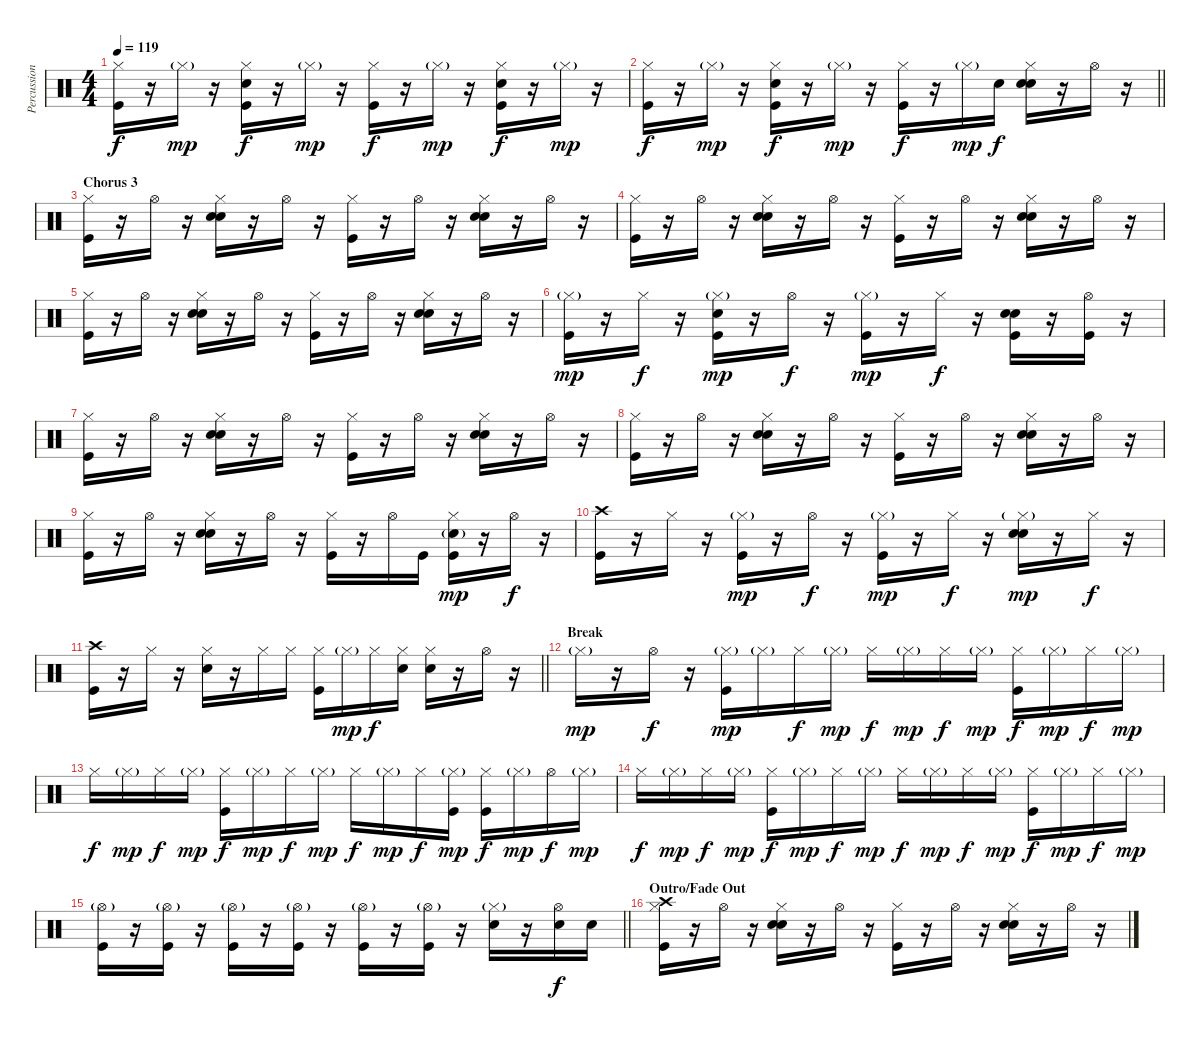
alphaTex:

\track ("Percussion" "Percussion") {instrument percussion}
\staff {score}
\articulation defaults
\ts (4 4)
\tempo 119
\clef neutral
\ks c
("Hi-Hat (closed)" "Kick (hit)").16{dy f} r.16 "Hi-Hat (closed)"{g}.16{dy mp} r.16 ("Hi-Hat (closed)" "Snare (hit) 2" "Kick (hit)").16{dy f} r.16 "Hi-Hat (closed)"{g}.16{dy mp} r.16 ("Hi-Hat (closed)" "Kick (hit)").16{dy f} r.16 "Hi-Hat (closed)"{g}.16{dy mp} r.16 ("Hi-Hat (closed)" "Snare (hit) 2" "Kick (hit)").16{dy f} r.16 "Hi-Hat (closed)"{g}.16{dy mp} r.16 |
\barLineRight lightlight
("Hi-Hat (closed)" "Kick (hit)").16{dy f} r.16 "Hi-Hat (closed)"{g}.16{dy mp} r.16 ("Hi-Hat (closed)" "Snare (hit) 2" "Kick (hit)").16{dy f} r.16 "Hi-Hat (closed)"{g}.16{dy mp} r.16 ("Hi-Hat (closed)" "Kick (hit)").16{dy f} r.16 "Hi-Hat (closed)"{g}.16{dy mp} "Snare (hit) 2".16{dy f} ("Hi-Hat (closed)" "Hand Clap (hit)" "Snare (hit) 2").16 r.16 "Hi-Hat (open)".16 r.16 |
\section ("" "Chorus 3")
("Hi-Hat (closed)" "Kick (hit)").16 r.16 "Hi-Hat (open)".16 r.16 ("Hi-Hat (closed)" "Hand Clap (hit)" "Snare (hit) 2").16 r.16 "Hi-Hat (open)".16 r.16 ("Hi-Hat (closed)" "Kick (hit)").16 r.16 "Hi-Hat (open)".16 r.16 ("Hi-Hat (closed)" "Hand Clap (hit)" "Snare (hit) 2").16 r.16 "Hi-Hat (open)".16 r.16 |
("Hi-Hat (closed)" "Kick (hit)").16 r.16 "Hi-Hat (open)".16 r.16 ("Hi-Hat (closed)" "Hand Clap (hit)" "Snare (hit) 2").16 r.16 "Hi-Hat (open)".16 r.16 ("Hi-Hat (closed)" "Kick (hit)").16 r.16 "Hi-Hat (open)".16 r.16 ("Hi-Hat (closed)" "Hand Clap (hit)" "Snare (hit) 2").16 r.16 "Hi-Hat (open)".16 r.16 |
("Hi-Hat (closed)" "Kick (hit)").16 r.16 "Hi-Hat (open)".16 r.16 ("Hi-Hat (closed)" "Hand Clap (hit)" "Snare (hit) 2").16 r.16 "Hi-Hat (open)".16 r.16 ("Hi-Hat (closed)" "Kick (hit)").16 r.16 "Hi-Hat (open)".16 r.16 ("Hi-Hat (closed)" "Hand Clap (hit)" "Snare (hit) 2").16 r.16 "Hi-Hat (open)".16 r.16 |
("Hi-Hat (closed)"{g} "Kick (hit)").16{dy mp} r.16 "Hi-Hat (closed)".16{dy f} r.16 ("Hi-Hat (closed)"{g} "Hand Clap (hit)" "Kick (hit)").16{dy mp} r.16 "Hi-Hat (open)".16{dy f} r.16 ("Hi-Hat (closed)"{g} "Kick (hit)").16{dy mp} r.16 "Hi-Hat (closed)".16{dy f} r.16 ("Hand Clap (hit)" "Snare (hit) 2" "Kick (hit)").16 r.16 ("Hi-Hat (open)" "Kick (hit)").16 r.16 |
("Hi-Hat (closed)" "Kick (hit)").16 r.16 "Hi-Hat (open)".16 r.16 ("Hi-Hat (closed)" "Hand Clap (hit)" "Snare (hit) 2").16 r.16 "Hi-Hat (open)".16 r.16 ("Hi-Hat (closed)" "Kick (hit)").16 r.16 "Hi-Hat (open)".16 r.16 ("Hi-Hat (closed)" "Hand Clap (hit)" "Snare (hit) 2").16 r.16 "Hi-Hat (open)".16 r.16 |
("Hi-Hat (closed)" "Kick (hit)").16 r.16 "Hi-Hat (open)".16 r.16 ("Hi-Hat (closed)" "Hand Clap (hit)" "Snare (hit) 2").16 r.16 "Hi-Hat (open)".16 r.16 ("Hi-Hat (closed)" "Kick (hit)").16 r.16 "Hi-Hat (open)".16 r.16 ("Hi-Hat (closed)" "Hand Clap (hit)" "Snare (hit) 2").16 r.16 "Hi-Hat (open)".16 r.16 |
("Hi-Hat (closed)" "Kick (hit)").16 r.16 "Hi-Hat (open)".16 r.16 ("Hi-Hat (closed)" "Hand Clap (hit)" "Snare (hit) 2").16 r.16 "Hi-Hat (open)".16 r.16 ("Hi-Hat (closed)" "Kick (hit)").16 r.16 "Hi-Hat (open)".16 "Kick (hit)".16 ("Hi-Hat (closed)" "Hand Clap (hit)"{g} "Kick (hit)").16{dy mp} r.16 "Hi-Hat (open)".16{dy f} r.16 |
("Crash high (hit)" "Kick (hit)").16 r.16 "Hi-Hat (closed)".16 r.16 ("Hi-Hat (closed)"{g} "Kick (hit)").16{dy mp} r.16 "Hi-Hat (open)".16{dy f} r.16 ("Hi-Hat (closed)"{g} "Kick (hit)").16{dy mp} r.16 "Hi-Hat (closed)".16{dy f} r.16 ("Hi-Hat (closed)"{g} "Hand Clap (hit)" "Snare (hit) 2").16{dy mp} r.16 "Hi-Hat (closed)".16{dy f} r.16 |
\barLineRight lightlight
("Crash high (hit)" "Kick (hit)").16 r.16 "Hi-Hat (closed)".16 r.16 ("Hi-Hat (closed)" "Hand Clap (hit)").16 r.16 "Hi-Hat (closed)".16 "Hi-Hat (closed)".16 ("Hi-Hat (closed)" "Kick (hit)").16 "Hi-Hat (closed)"{g}.16{dy mp} "Hi-Hat (closed)".16{dy f} ("Hi-Hat (closed)" "Snare (hit) 2").16 ("Hi-Hat (closed)" "Snare (hit) 2").16 r.16 "Hi-Hat (open)".16 r.16 |
\section ("" "Break")
"Hi-Hat (closed)"{g}.16{dy mp} r.16 "Hi-Hat (open)".16{dy f} r.16 ("Hi-Hat (closed)"{g} "Kick (hit)").16{dy mp} "Hi-Hat (closed)"{g}.16 "Hi-Hat (closed)".16{dy f} "Hi-Hat (closed)"{g}.16{dy mp} "Hi-Hat (closed)".16{dy f} "Hi-Hat (closed)"{g}.16{dy mp} "Hi-Hat (closed)".16{dy f} "Hi-Hat (closed)"{g}.16{dy mp} ("Hi-Hat (closed)" "Kick (hit)").16{dy f} "Hi-Hat (closed)"{g}.16{dy mp} "Hi-Hat (closed)".16{dy f} "Hi-Hat (closed)"{g}.16{dy mp} |
"Hi-Hat (closed)".16{dy f} "Hi-Hat (closed)"{g}.16{dy mp} "Hi-Hat (closed)".16{dy f} "Hi-Hat (closed)"{g}.16{dy mp} ("Hi-Hat (closed)" "Kick (hit)").16{dy f} "Hi-Hat (closed)"{g}.16{dy mp} "Hi-Hat (closed)".16{dy f} "Hi-Hat (closed)"{g}.16{dy mp} "Hi-Hat (closed)".16{dy f} "Hi-Hat (closed)"{g}.16{dy mp} "Hi-Hat (closed)".16{dy f} ("Hi-Hat (closed)"{g} "Kick (hit)").16{dy mp} ("Hi-Hat (closed)" "Kick (hit)").16{dy f} "Hi-Hat (closed)"{g}.16{dy mp} "Hi-Hat (open)".16{dy f} "Hi-Hat (closed)"{g}.16{dy mp} |
"Hi-Hat (closed)".16{dy f} "Hi-Hat (closed)"{g}.16{dy mp} "Hi-Hat (closed)".16{dy f} "Hi-Hat (closed)"{g}.16{dy mp} ("Hi-Hat (closed)" "Kick (hit)").16{dy f} "Hi-Hat (closed)"{g}.16{dy mp} "Hi-Hat (closed)".16{dy f} "Hi-Hat (closed)"{g}.16{dy mp} "Hi-Hat (closed)".16{dy f} "Hi-Hat (closed)"{g}.16{dy mp} "Hi-Hat (closed)".16{dy f} "Hi-Hat (closed)"{g}.16{dy mp} ("Hi-Hat (closed)" "Kick (hit)").16{dy f} "Hi-Hat (closed)"{g}.16{dy mp} "Hi-Hat (closed)".16{dy f} "Hi-Hat (closed)"{g}.16{dy mp} |
\barLineRight lightlight
("Hi-Hat (open)"{g} "Kick (hit)").16 r.16 ("Hi-Hat (open)"{g} "Kick (hit)").16 r.16 ("Hi-Hat (open)"{g} "Kick (hit)").16 r.16 ("Hi-Hat (open)"{g} "Kick (hit)").16 r.16 ("Hi-Hat (open)"{g} "Kick (hit)").16 r.16 ("Hi-Hat (open)"{g} "Kick (hit)").16 r.16 ("Hi-Hat (closed)"{g} "Snare (hit) 2").16 r.16 ("Hi-Hat (open)" "Snare (hit) 2").16{dy f} "Snare (hit) 2".16 |
\section ("" "Outro/Fade Out")
("Crash high (hit)" "Hi-Hat (closed)" "Kick (hit)").16 r.16 "Hi-Hat (open)".16 r.16 ("Hi-Hat (closed)" "Hand Clap (hit)" "Snare (hit) 2").16 r.16 "Hi-Hat (open)".16 r.16 ("Hi-Hat (closed)" "Kick (hit)").16 r.16 "Hi-Hat (open)".16 r.16 ("Hi-Hat (closed)" "Hand Clap (hit)" "Snare (hit) 2").16 r.16 "Hi-Hat (open)".16 r.16
